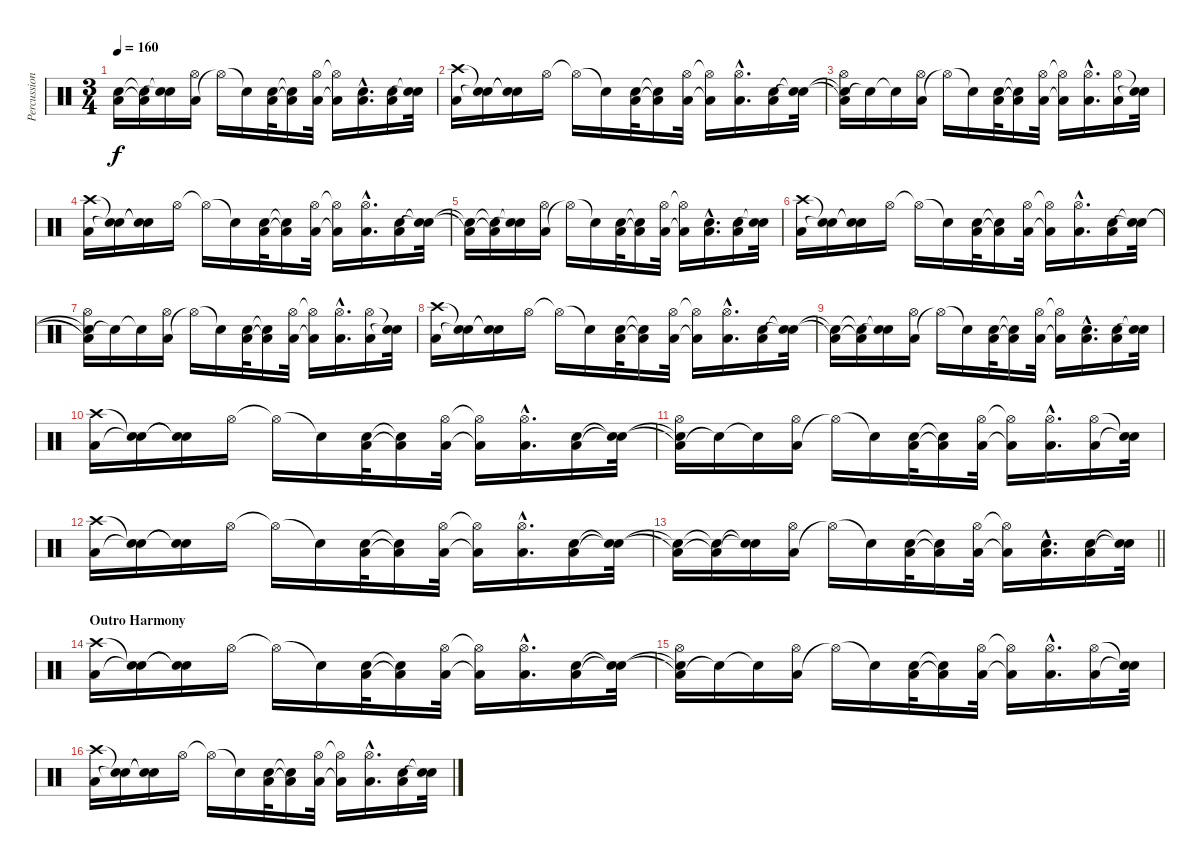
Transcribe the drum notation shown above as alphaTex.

\track ("Percussion 1" "Percussion") {instrument percussion}
\staff {score}
\articulation defaults
\ts (3 4)
\tempo 160
\clef neutral
\ks c
("Low Floor Tom (hit)"{t} "Snare (hit)"{t}).16{dy f} ("Low Floor Tom (hit)"{t} "Snare (hit)"{t}).16 ("Snare (hit)"{t} "Snare (hit)"{t}).16 ("Low Floor Tom (hit)" "Hi-Hat (open)").16 "Hi-Hat (open)"{t}.16 "Snare (hit)"{t}.16 ("Low Floor Tom (hit)" "Snare (hit) 2").32 ("Low Floor Tom (hit)"{t} "Snare (hit)"{t}).16 ("Low Floor Tom (hit)" "Hi-Hat (open)").32 ("Low Floor Tom (hit)"{t} "Hi-Hat (open)"{t}).16 ("Low Floor Tom (hit)"{hac} "Snare (hit) 2"{hac}).16{d} ("Low Floor Tom (hit)" "Snare (hit) 2").16 ("Snare (hit)"{t} "Snare (hit)"{t}).32 |
("Low Floor Tom (hit)" "Crash high (hit)").16 ("Snare (hit)"{t} "Snare (hit)"{t}).16 ("Snare (hit)"{t} "Snare (hit)"{t}).16 "Hi-Hat (open)".16 "Hi-Hat (open)"{t}.16 "Snare (hit)"{t}.16 ("Low Floor Tom (hit)" "Snare (hit) 2").32 ("Low Floor Tom (hit)"{t} "Snare (hit)"{t}).16 ("Low Floor Tom (hit)" "Hi-Hat (open)").32 ("Low Floor Tom (hit)"{t} "Hi-Hat (open)"{t}).16 ("Low Floor Tom (hit)"{hac} "Hi-Hat (open)"{hac}).16{d} ("Low Floor Tom (hit)" "Snare (hit) 2").16 ("Snare (hit)"{t} "Snare (hit)"{t}).32 |
("Low Floor Tom (hit)"{t} "Snare (hit)"{t} "Hi-Hat (open)").16 "Snare (hit)"{t}.16 "Snare (hit)"{t}.16 ("Low Floor Tom (hit)" "Hi-Hat (open)").16 "Hi-Hat (open)"{t}.16 "Snare (hit)"{t}.16 ("Low Floor Tom (hit)" "Snare (hit) 2").32 ("Low Floor Tom (hit)"{t} "Snare (hit)"{t}).16 ("Low Floor Tom (hit)" "Hi-Hat (open)").32 ("Low Floor Tom (hit)"{t} "Hi-Hat (open)"{t}).16 ("Low Floor Tom (hit)"{hac} "Hi-Hat (open)"{hac}).16{d} ("Low Floor Tom (hit)" "Hi-Hat (open)").16 ("Snare (hit)"{t} "Snare (hit)"{t}).32 |
("Low Floor Tom (hit)" "Crash high (hit)").16 ("Snare (hit)"{t} "Snare (hit)"{t}).16 ("Snare (hit)"{t} "Snare (hit)"{t}).16 "Hi-Hat (open)".16 "Hi-Hat (open)"{t}.16 "Snare (hit)"{t}.16 ("Low Floor Tom (hit)" "Snare (hit) 2").32 ("Low Floor Tom (hit)"{t} "Snare (hit)"{t}).16 ("Low Floor Tom (hit)" "Hi-Hat (open)").32 ("Low Floor Tom (hit)"{t} "Hi-Hat (open)"{t}).16 ("Low Floor Tom (hit)"{hac} "Hi-Hat (open)"{hac}).16{d} ("Low Floor Tom (hit)" "Snare (hit) 2").16 ("Snare (hit)"{t} "Snare (hit)"{t}).32 |
("Low Floor Tom (hit)"{t} "Snare (hit)"{t}).16 ("Low Floor Tom (hit)"{t} "Snare (hit)"{t}).16 ("Snare (hit)"{t} "Snare (hit)"{t}).16 ("Low Floor Tom (hit)" "Hi-Hat (open)").16 "Hi-Hat (open)"{t}.16 "Snare (hit)"{t}.16 ("Low Floor Tom (hit)" "Snare (hit) 2").32 ("Low Floor Tom (hit)"{t} "Snare (hit)"{t}).16 ("Low Floor Tom (hit)" "Hi-Hat (open)").32 ("Low Floor Tom (hit)"{t} "Hi-Hat (open)"{t}).16 ("Low Floor Tom (hit)"{hac} "Snare (hit) 2"{hac}).16{d} ("Low Floor Tom (hit)" "Snare (hit) 2").16 ("Snare (hit)"{t} "Snare (hit)"{t}).32 |
("Low Floor Tom (hit)" "Crash high (hit)").16 ("Snare (hit)"{t} "Snare (hit)"{t}).16 ("Snare (hit)"{t} "Snare (hit)"{t}).16 "Hi-Hat (open)".16 "Hi-Hat (open)"{t}.16 "Snare (hit)"{t}.16 ("Low Floor Tom (hit)" "Snare (hit) 2").32 ("Low Floor Tom (hit)"{t} "Snare (hit)"{t}).16 ("Low Floor Tom (hit)" "Hi-Hat (open)").32 ("Low Floor Tom (hit)"{t} "Hi-Hat (open)"{t}).16 ("Low Floor Tom (hit)"{hac} "Hi-Hat (open)"{hac}).16{d} ("Low Floor Tom (hit)" "Snare (hit) 2").16 ("Snare (hit)"{t} "Snare (hit)"{t}).32 |
("Low Floor Tom (hit)"{t} "Snare (hit)"{t} "Hi-Hat (open)").16 "Snare (hit)"{t}.16 "Snare (hit)"{t}.16 ("Low Floor Tom (hit)" "Hi-Hat (open)").16 "Hi-Hat (open)"{t}.16 "Snare (hit)"{t}.16 ("Low Floor Tom (hit)" "Snare (hit) 2").32 ("Low Floor Tom (hit)"{t} "Snare (hit)"{t}).16 ("Low Floor Tom (hit)" "Hi-Hat (open)").32 ("Low Floor Tom (hit)"{t} "Hi-Hat (open)"{t}).16 ("Low Floor Tom (hit)"{hac} "Hi-Hat (open)"{hac}).16{d} ("Low Floor Tom (hit)" "Hi-Hat (open)").16 ("Snare (hit)"{t} "Snare (hit)"{t}).32 |
("Low Floor Tom (hit)" "Crash high (hit)").16 ("Snare (hit)"{t} "Snare (hit)"{t}).16 ("Snare (hit)"{t} "Snare (hit)"{t}).16 "Hi-Hat (open)".16 "Hi-Hat (open)"{t}.16 "Snare (hit)"{t}.16 ("Low Floor Tom (hit)" "Snare (hit) 2").32 ("Low Floor Tom (hit)"{t} "Snare (hit)"{t}).16 ("Low Floor Tom (hit)" "Hi-Hat (open)").32 ("Low Floor Tom (hit)"{t} "Hi-Hat (open)"{t}).16 ("Low Floor Tom (hit)"{hac} "Hi-Hat (open)"{hac}).16{d} ("Low Floor Tom (hit)" "Snare (hit) 2").16 ("Snare (hit)"{t} "Snare (hit)"{t}).32 |
("Low Floor Tom (hit)"{t} "Snare (hit)"{t}).16 ("Low Floor Tom (hit)"{t} "Snare (hit)"{t}).16 ("Snare (hit)"{t} "Snare (hit)"{t}).16 ("Low Floor Tom (hit)" "Hi-Hat (open)").16 "Hi-Hat (open)"{t}.16 "Snare (hit)"{t}.16 ("Low Floor Tom (hit)" "Snare (hit) 2").32 ("Low Floor Tom (hit)"{t} "Snare (hit)"{t}).16 ("Low Floor Tom (hit)" "Hi-Hat (open)").32 ("Low Floor Tom (hit)"{t} "Hi-Hat (open)"{t}).16 ("Low Floor Tom (hit)"{hac} "Snare (hit) 2"{hac}).16{d} ("Low Floor Tom (hit)" "Snare (hit) 2").16 ("Snare (hit)"{t} "Snare (hit)"{t}).32 |
("Low Floor Tom (hit)" "Crash high (hit)").16 ("Snare (hit)"{t} "Snare (hit)"{t}).16 ("Snare (hit)"{t} "Snare (hit)"{t}).16 "Hi-Hat (open)".16 "Hi-Hat (open)"{t}.16 "Snare (hit)"{t}.16 ("Low Floor Tom (hit)" "Snare (hit) 2").32 ("Low Floor Tom (hit)"{t} "Snare (hit)"{t}).16 ("Low Floor Tom (hit)" "Hi-Hat (open)").32 ("Low Floor Tom (hit)"{t} "Hi-Hat (open)"{t}).16 ("Low Floor Tom (hit)"{hac} "Hi-Hat (open)"{hac}).16{d} ("Low Floor Tom (hit)" "Snare (hit) 2").16 ("Snare (hit)"{t} "Snare (hit)"{t}).32 |
("Low Floor Tom (hit)"{t} "Snare (hit)"{t} "Hi-Hat (open)").16 "Snare (hit)"{t}.16 "Snare (hit)"{t}.16 ("Low Floor Tom (hit)" "Hi-Hat (open)").16 "Hi-Hat (open)"{t}.16 "Snare (hit)"{t}.16 ("Low Floor Tom (hit)" "Snare (hit) 2").32 ("Low Floor Tom (hit)"{t} "Snare (hit)"{t}).16 ("Low Floor Tom (hit)" "Hi-Hat (open)").32 ("Low Floor Tom (hit)"{t} "Hi-Hat (open)"{t}).16 ("Low Floor Tom (hit)"{hac} "Hi-Hat (open)"{hac}).16{d} ("Low Floor Tom (hit)" "Hi-Hat (open)").16 ("Snare (hit)"{t} "Snare (hit)"{t}).32 |
("Low Floor Tom (hit)" "Crash high (hit)").16 ("Snare (hit)"{t} "Snare (hit)"{t}).16 ("Snare (hit)"{t} "Snare (hit)"{t}).16 "Hi-Hat (open)".16 "Hi-Hat (open)"{t}.16 "Snare (hit)"{t}.16 ("Low Floor Tom (hit)" "Snare (hit) 2").32 ("Low Floor Tom (hit)"{t} "Snare (hit)"{t}).16 ("Low Floor Tom (hit)" "Hi-Hat (open)").32 ("Low Floor Tom (hit)"{t} "Hi-Hat (open)"{t}).16 ("Low Floor Tom (hit)"{hac} "Hi-Hat (open)"{hac}).16{d} ("Low Floor Tom (hit)" "Snare (hit) 2").16 ("Snare (hit)"{t} "Snare (hit)"{t}).32 |
\barLineRight lightlight
("Low Floor Tom (hit)"{t} "Snare (hit)"{t}).16 ("Low Floor Tom (hit)"{t} "Snare (hit)"{t}).16 ("Snare (hit)"{t} "Snare (hit)"{t}).16 ("Low Floor Tom (hit)" "Hi-Hat (open)").16 "Hi-Hat (open)"{t}.16 "Snare (hit)"{t}.16 ("Low Floor Tom (hit)" "Snare (hit) 2").32 ("Low Floor Tom (hit)"{t} "Snare (hit)"{t}).16 ("Low Floor Tom (hit)" "Hi-Hat (open)").32 ("Low Floor Tom (hit)"{t} "Hi-Hat (open)"{t}).16 ("Low Floor Tom (hit)"{hac} "Snare (hit) 2"{hac}).16{d} ("Low Floor Tom (hit)" "Snare (hit) 2").16 ("Snare (hit)"{t} "Snare (hit)"{t}).32 |
\section ("" "Outro Harmony")
("Low Floor Tom (hit)" "Crash high (hit)").16 ("Snare (hit)"{t} "Snare (hit)"{t}).16 ("Snare (hit)"{t} "Snare (hit)"{t}).16 "Hi-Hat (open)".16 "Hi-Hat (open)"{t}.16 "Snare (hit)"{t}.16 ("Low Floor Tom (hit)" "Snare (hit) 2").32 ("Low Floor Tom (hit)"{t} "Snare (hit)"{t}).16 ("Low Floor Tom (hit)" "Hi-Hat (open)").32 ("Low Floor Tom (hit)"{t} "Hi-Hat (open)"{t}).16 ("Low Floor Tom (hit)"{hac} "Hi-Hat (open)"{hac}).16{d} ("Low Floor Tom (hit)" "Snare (hit) 2").16 ("Snare (hit)"{t} "Snare (hit)"{t}).32 |
("Low Floor Tom (hit)"{t} "Snare (hit)"{t} "Hi-Hat (open)").16 "Snare (hit)"{t}.16 "Snare (hit)"{t}.16 ("Low Floor Tom (hit)" "Hi-Hat (open)").16 "Hi-Hat (open)"{t}.16 "Snare (hit)"{t}.16 ("Low Floor Tom (hit)" "Snare (hit) 2").32 ("Low Floor Tom (hit)"{t} "Snare (hit)"{t}).16 ("Low Floor Tom (hit)" "Hi-Hat (open)").32 ("Low Floor Tom (hit)"{t} "Hi-Hat (open)"{t}).16 ("Low Floor Tom (hit)"{hac} "Hi-Hat (open)"{hac}).16{d} ("Low Floor Tom (hit)" "Hi-Hat (open)").16 ("Snare (hit)"{t} "Snare (hit)"{t}).32 |
("Low Floor Tom (hit)" "Crash high (hit)").16 ("Snare (hit)"{t} "Snare (hit)"{t}).16 ("Snare (hit)"{t} "Snare (hit)"{t}).16 "Hi-Hat (open)".16 "Hi-Hat (open)"{t}.16 "Snare (hit)"{t}.16 ("Low Floor Tom (hit)" "Snare (hit) 2").32 ("Low Floor Tom (hit)"{t} "Snare (hit)"{t}).16 ("Low Floor Tom (hit)" "Hi-Hat (open)").32 ("Low Floor Tom (hit)"{t} "Hi-Hat (open)"{t}).16 ("Low Floor Tom (hit)"{hac} "Hi-Hat (open)"{hac}).16{d} ("Low Floor Tom (hit)" "Snare (hit) 2").16 ("Snare (hit)"{t} "Snare (hit)"{t}).32
